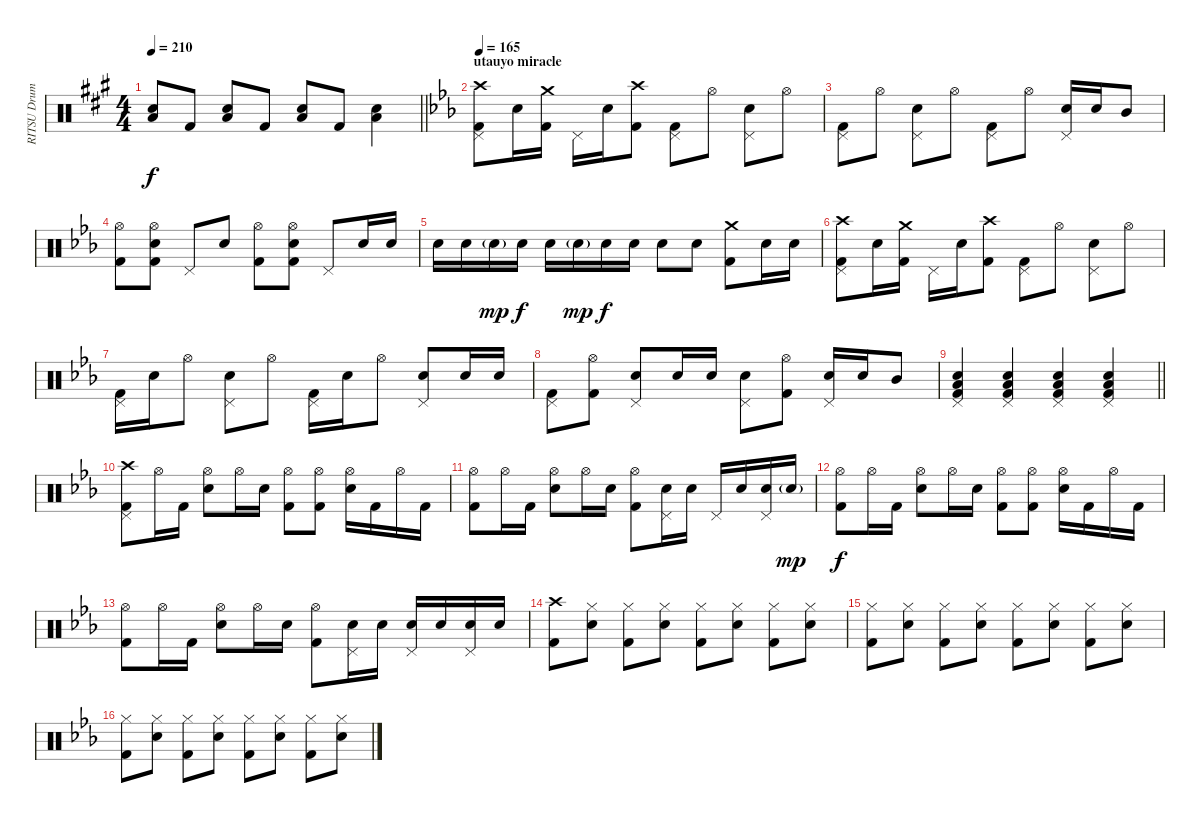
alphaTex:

\track ("RITSU Drums" "RITSU Drum") {instrument percussion}
\staff {score}
\articulation defaults
\ts (4 4)
\tempo 210
\clef neutral
\barLineRight lightlight
\ks a
("Electric Snare (hit)" "Low Floor Tom (hit)").8{dy f} "Kick (hit) 2".8 ("Electric Snare (hit)" "Low Floor Tom (hit)").8 "Kick (hit) 2".8 ("Electric Snare (hit)" "Low Floor Tom (hit)").8 "Kick (hit) 2".8 ("Electric Snare (hit)" "Low Floor Tom (hit)").4 |
\section ("" "utauyo miracle")
\tempo 165
\ks eb
("Crash high (hit)" "Pedal Hi-Hat (hit)" "Kick (hit) 2").8 "Electric Snare (hit)".16 ("Crash medium (hit)" "Kick (hit) 2").16 "Pedal Hi-Hat (hit)".16 "Electric Snare (hit)".16 ("Crash high (hit)" "Kick (hit) 2").8 ("Pedal Hi-Hat (hit)" "Kick (hit) 2").8 "Hi-Hat (open)".8 ("Pedal Hi-Hat (hit)" "Electric Snare (hit)").8 "Hi-Hat (open)".8 |
("Pedal Hi-Hat (hit)" "Kick (hit) 2").8 "Hi-Hat (open)".8 ("Pedal Hi-Hat (hit)" "Electric Snare (hit)").8 "Hi-Hat (open)".8 ("Pedal Hi-Hat (hit)" "Kick (hit) 2").8 "Hi-Hat (open)".8 ("Pedal Hi-Hat (hit)" "Electric Snare (hit)").16 "Electric Snare (hit)".16 "Mid Tom (hit)".8 |
("Hi-Hat (open)" "Kick (hit) 2").8 ("Hi-Hat (open)" "Electric Snare (hit)" "Kick (hit) 2").8 "Pedal Hi-Hat (hit)".8 "Electric Snare (hit)".8 ("Hi-Hat (open)" "Kick (hit) 2").8 ("Hi-Hat (open)" "Electric Snare (hit)" "Kick (hit) 2").8 "Pedal Hi-Hat (hit)".8 "Electric Snare (hit)".16 "Electric Snare (hit)".16 |
"Electric Snare (hit)".16 "Electric Snare (hit)".16 "Electric Snare (hit)"{g}.16{dy mp} "Electric Snare (hit)".16{dy f} "Electric Snare (hit)".16 "Electric Snare (hit)"{g}.16{dy mp} "Electric Snare (hit)".16{dy f} "Electric Snare (hit)".16 "Electric Snare (hit)".8 "Electric Snare (hit)".8 ("Crash medium (hit)" "Kick (hit) 2").8 "Electric Snare (hit)".16 "Electric Snare (hit)".16 |
("Crash high (hit)" "Pedal Hi-Hat (hit)" "Kick (hit) 2").8 "Electric Snare (hit)".16 ("Crash medium (hit)" "Kick (hit) 2").16 "Pedal Hi-Hat (hit)".16 "Electric Snare (hit)".16 ("Crash high (hit)" "Kick (hit) 2").8 ("Pedal Hi-Hat (hit)" "Kick (hit) 2").8 "Hi-Hat (open)".8 ("Pedal Hi-Hat (hit)" "Electric Snare (hit)").8 "Hi-Hat (open)".8 |
("Pedal Hi-Hat (hit)" "Kick (hit) 2").16 "Electric Snare (hit)".16 "Hi-Hat (open)".8 ("Pedal Hi-Hat (hit)" "Electric Snare (hit)").8 "Hi-Hat (open)".8 ("Pedal Hi-Hat (hit)" "Kick (hit) 2").16 "Electric Snare (hit)".16 "Hi-Hat (open)".8 ("Pedal Hi-Hat (hit)" "Electric Snare (hit)").8 "Electric Snare (hit)".16 "Electric Snare (hit)".16 |
("Pedal Hi-Hat (hit)" "Kick (hit) 2").8 ("Hi-Hat (open)" "Kick (hit) 2").8 ("Pedal Hi-Hat (hit)" "Electric Snare (hit)").8 "Electric Snare (hit)".16 "Electric Snare (hit)".16 ("Pedal Hi-Hat (hit)" "Electric Snare (hit)").8 ("Hi-Hat (open)" "Kick (hit) 2").8 ("Pedal Hi-Hat (hit)" "Electric Snare (hit)").16 "Electric Snare (hit)".16 "Mid Tom (hit)".8 |
\barLineRight lightlight
("Pedal Hi-Hat (hit)" "Electric Snare (hit)" "Low Floor Tom (hit)" "Kick (hit) 2").4 ("Pedal Hi-Hat (hit)" "Electric Snare (hit)" "Low Floor Tom (hit)" "Kick (hit) 2").4 ("Pedal Hi-Hat (hit)" "Electric Snare (hit)" "Low Floor Tom (hit)" "Kick (hit) 2").4 ("Pedal Hi-Hat (hit)" "Electric Snare (hit)" "Low Floor Tom (hit)" "Kick (hit) 2").4 |
("Crash high (hit)" "Pedal Hi-Hat (hit)" "Kick (hit) 2").8 "Hi-Hat (open)".16 "Kick (hit) 2".16 ("Hi-Hat (open)" "Electric Snare (hit)").8 "Hi-Hat (open)".16 "Electric Snare (hit)".16 ("Hi-Hat (open)" "Kick (hit) 2").8 ("Hi-Hat (open)" "Kick (hit) 2").8 ("Hi-Hat (open)" "Electric Snare (hit)").16 "Kick (hit) 2".16 "Hi-Hat (open)".16 "Kick (hit) 2".16 |
("Hi-Hat (open)" "Kick (hit) 2").8 "Hi-Hat (open)".16 "Kick (hit) 2".16 ("Hi-Hat (open)" "Electric Snare (hit)").8 "Hi-Hat (open)".16 "Electric Snare (hit)".16 ("Hi-Hat (open)" "Kick (hit) 2").8 ("Pedal Hi-Hat (hit)" "Electric Snare (hit)").16 "Electric Snare (hit)".16 "Pedal Hi-Hat (hit)".16 "Electric Snare (hit)".16 ("Pedal Hi-Hat (hit)" "Electric Snare (hit)").16 "Electric Snare (hit)"{g}.16{dy mp} |
("Hi-Hat (open)" "Kick (hit) 2").8{dy f} "Hi-Hat (open)".16 "Kick (hit) 2".16 ("Hi-Hat (open)" "Electric Snare (hit)").8 "Hi-Hat (open)".16 "Electric Snare (hit)".16 ("Hi-Hat (open)" "Kick (hit) 2").8 ("Hi-Hat (open)" "Kick (hit) 2").8 ("Hi-Hat (open)" "Electric Snare (hit)").16 "Kick (hit) 2".16 "Hi-Hat (open)".16 "Kick (hit) 2".16 |
("Hi-Hat (open)" "Kick (hit) 2").8 "Hi-Hat (open)".16 "Kick (hit) 2".16 ("Hi-Hat (open)" "Electric Snare (hit)").8 "Hi-Hat (open)".16 "Electric Snare (hit)".16 ("Hi-Hat (open)" "Kick (hit) 2").8 ("Pedal Hi-Hat (hit)" "Electric Snare (hit)").16 "Electric Snare (hit)".16 ("Pedal Hi-Hat (hit)" "Electric Snare (hit)").16 "Electric Snare (hit)".16 ("Pedal Hi-Hat (hit)" "Electric Snare (hit)").16 "Electric Snare (hit)".16 |
("Crash high (hit)" "Kick (hit) 2").8 ("Hi-Hat (closed)" "Electric Snare (hit)").8 ("Hi-Hat (closed)" "Kick (hit) 2").8 ("Hi-Hat (closed)" "Electric Snare (hit)").8 ("Hi-Hat (closed)" "Kick (hit) 2").8 ("Hi-Hat (closed)" "Electric Snare (hit)").8 ("Hi-Hat (closed)" "Kick (hit) 2").8 ("Hi-Hat (closed)" "Electric Snare (hit)").8 |
("Hi-Hat (closed)" "Kick (hit) 2").8 ("Hi-Hat (closed)" "Electric Snare (hit)").8 ("Hi-Hat (closed)" "Kick (hit) 2").8 ("Hi-Hat (closed)" "Electric Snare (hit)").8 ("Hi-Hat (closed)" "Kick (hit) 2").8 ("Hi-Hat (closed)" "Electric Snare (hit)").8 ("Hi-Hat (closed)" "Kick (hit) 2").8 ("Hi-Hat (closed)" "Electric Snare (hit)").8 |
("Hi-Hat (closed)" "Kick (hit) 2").8 ("Hi-Hat (closed)" "Electric Snare (hit)").8 ("Hi-Hat (closed)" "Kick (hit) 2").8 ("Hi-Hat (closed)" "Electric Snare (hit)").8 ("Hi-Hat (closed)" "Kick (hit) 2").8 ("Hi-Hat (closed)" "Electric Snare (hit)").8 ("Hi-Hat (closed)" "Kick (hit) 2").8 ("Hi-Hat (closed)" "Electric Snare (hit)").8
